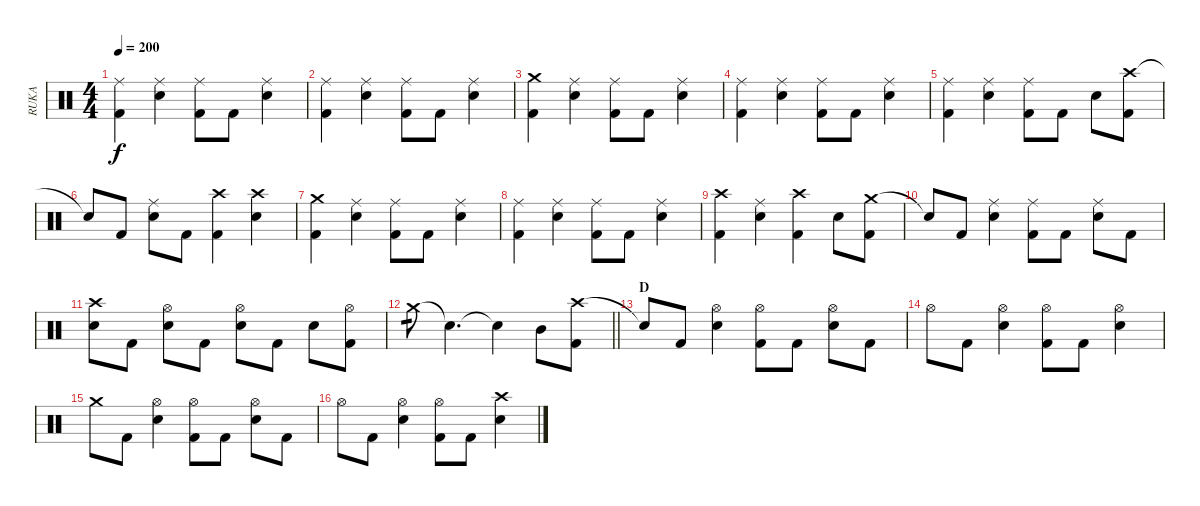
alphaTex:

\track ("RUKA" "RUKA") {instrument percussion}
\staff {score}
\articulation defaults
\ts (4 4)
\tempo 200
\clef neutral
\ks c
("Ride (middle)" "Kick (hit) 2").4{dy f} ("Ride (middle)" "Snare (hit) 2").4 ("Ride (middle)" "Kick (hit) 2").8 "Kick (hit) 2".8 ("Ride (middle)" "Snare (hit) 2").4 |
("Ride (middle)" "Kick (hit) 2").4 ("Ride (middle)" "Snare (hit) 2").4 ("Ride (middle)" "Kick (hit) 2").8 "Kick (hit) 2".8 ("Ride (middle)" "Snare (hit) 2").4 |
("Crash medium (hit)" "Kick (hit) 2").4 ("Ride (middle)" "Snare (hit) 2").4 ("Ride (middle)" "Kick (hit) 2").8 "Kick (hit) 2".8 ("Ride (middle)" "Snare (hit) 2").4 |
("Ride (middle)" "Kick (hit) 2").4 ("Ride (middle)" "Snare (hit) 2").4 ("Ride (middle)" "Kick (hit) 2").8 "Kick (hit) 2".8 ("Ride (middle)" "Snare (hit) 2").4 |
("Ride (middle)" "Kick (hit) 2").4 ("Ride (middle)" "Snare (hit) 2").4 ("Ride (middle)" "Kick (hit) 2").8 "Kick (hit) 2".8 "Snare (hit) 2".8 ("Crash high (hit)" "Kick (hit) 2").8 |
"Snare (hit)"{t}.8 "Kick (hit) 2".8 ("Ride (middle)" "Snare (hit) 2").8 "Kick (hit) 2".8 ("Crash high (hit)" "Kick (hit) 2").4 ("Crash high (hit)" "Snare (hit) 2").4 |
("Crash medium (hit)" "Kick (hit) 2").4 ("Ride (middle)" "Snare (hit) 2").4 ("Ride (middle)" "Kick (hit) 2").8 "Kick (hit) 2".8 ("Ride (middle)" "Snare (hit) 2").4 |
("Ride (middle)" "Kick (hit) 2").4 ("Ride (middle)" "Snare (hit) 2").4 ("Ride (middle)" "Kick (hit) 2").8 "Kick (hit) 2".8 ("Ride (middle)" "Snare (hit) 2").4 |
("Crash high (hit)" "Kick (hit) 2").4 ("Ride (middle)" "Snare (hit) 2").4 ("Crash high (hit)" "Kick (hit) 2").4 "Snare (hit) 2".8 ("Crash medium (hit)" "Kick (hit) 2").8 |
"Snare (hit)"{t}.8 "Kick (hit) 2".8 ("Ride (middle)" "Snare (hit) 2").4 ("Ride (middle)" "Kick (hit) 2").8 "Kick (hit) 2".8 ("Ride (middle)" "Snare (hit) 2").8 "Kick (hit) 2".8 |
("Crash high (hit)" "Snare (hit) 2").8 "Kick (hit) 2".8 ("Hi-Hat (open)" "Snare (hit) 2").8 "Kick (hit) 2".8 ("Hi-Hat (open)" "Snare (hit) 2").8 "Kick (hit) 2".8 "Snare (hit) 2".8 ("Hi-Hat (open)" "Kick (hit) 2").8 |
\barLineRight lightlight "Crash medium (hit)".8{tp 1 volume 5} "Snare (hit)"{t}.4{d volume 10} "Snare (hit)"{t}.4 "Mid Tom (hit)".8
("Crash high (hit)" "Kick (hit) 2").8 |
\section ("" "D")
"Snare (hit)"{t}.8 "Kick (hit) 2".8 ("Hi-Hat (open)" "Snare (hit) 2").4 ("Hi-Hat (open)" "Kick (hit) 2").8 "Kick (hit) 2".8 ("Hi-Hat (open)" "Snare (hit) 2").8 "Kick (hit) 2".8 |
"Hi-Hat (open)".8 "Kick (hit) 2".8 ("Hi-Hat (open)" "Snare (hit) 2").4 ("Hi-Hat (open)" "Kick (hit) 2").8 "Kick (hit) 2".8 ("Hi-Hat (open)" "Snare (hit) 2").4 |
"Crash medium (hit)".8 "Kick (hit) 2".8 ("Hi-Hat (open)" "Snare (hit) 2").4 ("Hi-Hat (open)" "Kick (hit) 2").8 "Kick (hit) 2".8 ("Hi-Hat (open)" "Snare (hit) 2").8 "Kick (hit) 2".8 |
"Hi-Hat (open)".8 "Kick (hit) 2".8 ("Hi-Hat (open)" "Snare (hit) 2").4 ("Hi-Hat (open)" "Kick (hit) 2").8 "Kick (hit) 2".8 ("Crash high (hit)" "Snare (hit) 2").4
